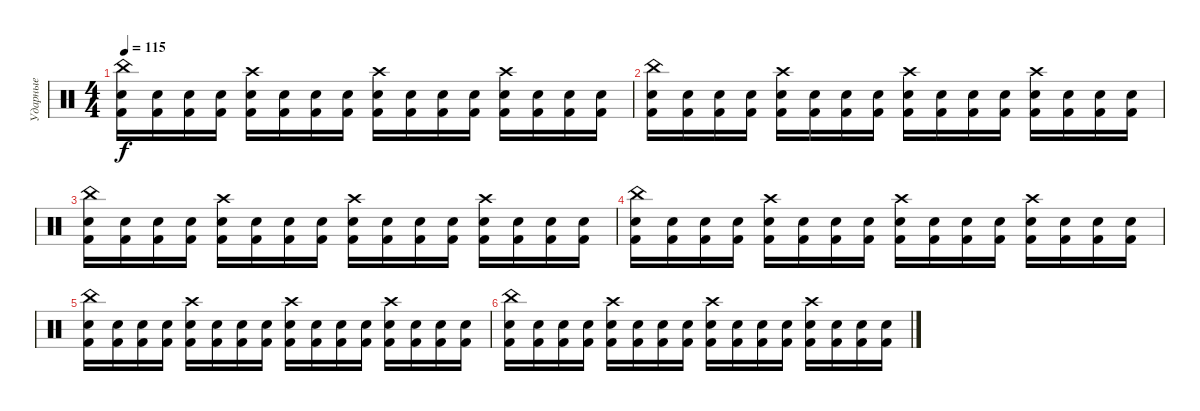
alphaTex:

\track ("Ударные" "Ударные") {mute instrument percussion}
\staff {score}
\articulation defaults
\ts (4 4)
\tempo 115
\clef neutral
\ks c
("China (hit)" "Electric Snare (hit)" "Kick (hit) 2").16{dy f} ("Electric Snare (hit)" "Kick (hit) 2").16 ("Electric Snare (hit)" "Kick (hit) 2").16 ("Electric Snare (hit)" "Kick (hit) 2").16 ("Crash high (hit)" "Electric Snare (hit)" "Kick (hit) 2").16 ("Electric Snare (hit)" "Kick (hit) 2").16 ("Electric Snare (hit)" "Kick (hit) 2").16 ("Electric Snare (hit)" "Kick (hit) 2").16 ("Crash high (hit)" "Electric Snare (hit)" "Kick (hit) 2").16 ("Electric Snare (hit)" "Kick (hit) 2").16 ("Electric Snare (hit)" "Kick (hit) 2").16 ("Electric Snare (hit)" "Kick (hit) 2").16 ("Crash high (hit)" "Electric Snare (hit)" "Kick (hit) 2").16 ("Electric Snare (hit)" "Kick (hit) 2").16 ("Electric Snare (hit)" "Kick (hit) 2").16 ("Electric Snare (hit)" "Kick (hit) 2").16 |
("China (hit)" "Electric Snare (hit)" "Kick (hit) 2").16 ("Electric Snare (hit)" "Kick (hit) 2").16 ("Electric Snare (hit)" "Kick (hit) 2").16 ("Electric Snare (hit)" "Kick (hit) 2").16 ("Crash high (hit)" "Electric Snare (hit)" "Kick (hit) 2").16 ("Electric Snare (hit)" "Kick (hit) 2").16 ("Electric Snare (hit)" "Kick (hit) 2").16 ("Electric Snare (hit)" "Kick (hit) 2").16 ("Crash high (hit)" "Electric Snare (hit)" "Kick (hit) 2").16 ("Electric Snare (hit)" "Kick (hit) 2").16 ("Electric Snare (hit)" "Kick (hit) 2").16 ("Electric Snare (hit)" "Kick (hit) 2").16 ("Crash high (hit)" "Electric Snare (hit)" "Kick (hit) 2").16 ("Electric Snare (hit)" "Kick (hit) 2").16 ("Electric Snare (hit)" "Kick (hit) 2").16 ("Electric Snare (hit)" "Kick (hit) 2").16 |
("China (hit)" "Electric Snare (hit)" "Kick (hit) 2").16 ("Electric Snare (hit)" "Kick (hit) 2").16 ("Electric Snare (hit)" "Kick (hit) 2").16 ("Electric Snare (hit)" "Kick (hit) 2").16 ("Crash high (hit)" "Electric Snare (hit)" "Kick (hit) 2").16 ("Electric Snare (hit)" "Kick (hit) 2").16 ("Electric Snare (hit)" "Kick (hit) 2").16 ("Electric Snare (hit)" "Kick (hit) 2").16 ("Crash high (hit)" "Electric Snare (hit)" "Kick (hit) 2").16 ("Electric Snare (hit)" "Kick (hit) 2").16 ("Electric Snare (hit)" "Kick (hit) 2").16 ("Electric Snare (hit)" "Kick (hit) 2").16 ("Crash high (hit)" "Electric Snare (hit)" "Kick (hit) 2").16 ("Electric Snare (hit)" "Kick (hit) 2").16 ("Electric Snare (hit)" "Kick (hit) 2").16 ("Electric Snare (hit)" "Kick (hit) 2").16 |
("China (hit)" "Electric Snare (hit)" "Kick (hit) 2").16 ("Electric Snare (hit)" "Kick (hit) 2").16 ("Electric Snare (hit)" "Kick (hit) 2").16 ("Electric Snare (hit)" "Kick (hit) 2").16 ("Crash high (hit)" "Electric Snare (hit)" "Kick (hit) 2").16 ("Electric Snare (hit)" "Kick (hit) 2").16 ("Electric Snare (hit)" "Kick (hit) 2").16 ("Electric Snare (hit)" "Kick (hit) 2").16 ("Crash high (hit)" "Electric Snare (hit)" "Kick (hit) 2").16 ("Electric Snare (hit)" "Kick (hit) 2").16 ("Electric Snare (hit)" "Kick (hit) 2").16 ("Electric Snare (hit)" "Kick (hit) 2").16 ("Crash high (hit)" "Electric Snare (hit)" "Kick (hit) 2").16 ("Electric Snare (hit)" "Kick (hit) 2").16 ("Electric Snare (hit)" "Kick (hit) 2").16 ("Electric Snare (hit)" "Kick (hit) 2").16 |
("China (hit)" "Electric Snare (hit)" "Kick (hit) 2").16 ("Electric Snare (hit)" "Kick (hit) 2").16 ("Electric Snare (hit)" "Kick (hit) 2").16 ("Electric Snare (hit)" "Kick (hit) 2").16 ("Crash high (hit)" "Electric Snare (hit)" "Kick (hit) 2").16 ("Electric Snare (hit)" "Kick (hit) 2").16 ("Electric Snare (hit)" "Kick (hit) 2").16 ("Electric Snare (hit)" "Kick (hit) 2").16 ("Crash high (hit)" "Electric Snare (hit)" "Kick (hit) 2").16 ("Electric Snare (hit)" "Kick (hit) 2").16 ("Electric Snare (hit)" "Kick (hit) 2").16 ("Electric Snare (hit)" "Kick (hit) 2").16 ("Crash high (hit)" "Electric Snare (hit)" "Kick (hit) 2").16 ("Electric Snare (hit)" "Kick (hit) 2").16 ("Electric Snare (hit)" "Kick (hit) 2").16 ("Electric Snare (hit)" "Kick (hit) 2").16 |
("China (hit)" "Electric Snare (hit)" "Kick (hit) 2").16 ("Electric Snare (hit)" "Kick (hit) 2").16 ("Electric Snare (hit)" "Kick (hit) 2").16 ("Electric Snare (hit)" "Kick (hit) 2").16 ("Crash high (hit)" "Electric Snare (hit)" "Kick (hit) 2").16 ("Electric Snare (hit)" "Kick (hit) 2").16 ("Electric Snare (hit)" "Kick (hit) 2").16 ("Electric Snare (hit)" "Kick (hit) 2").16 ("Crash high (hit)" "Electric Snare (hit)" "Kick (hit) 2").16 ("Electric Snare (hit)" "Kick (hit) 2").16 ("Electric Snare (hit)" "Kick (hit) 2").16 ("Electric Snare (hit)" "Kick (hit) 2").16 ("Crash high (hit)" "Electric Snare (hit)" "Kick (hit) 2").16 ("Electric Snare (hit)" "Kick (hit) 2").16 ("Electric Snare (hit)" "Kick (hit) 2").16 ("Electric Snare (hit)" "Kick (hit) 2").16
